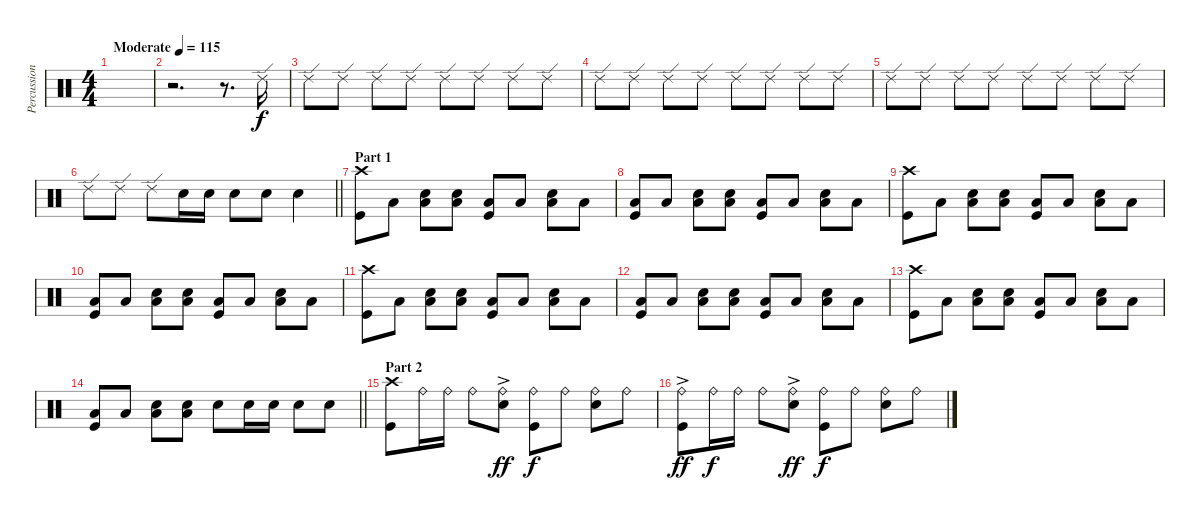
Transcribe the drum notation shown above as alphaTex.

\track ("Percussion" "Percussion") {instrument percussion}
\staff {score}
\articulation defaults
\ts (4 4)
\tempo (115 "Moderate")
\clef neutral
\ks c
|
r.2{d} r.8{d} "Ride (edge) 2".16 |
"Ride (edge) 2".8 "Ride (edge) 2".8 "Ride (edge) 2".8 "Ride (edge) 2".8 "Ride (edge) 2".8 "Ride (edge) 2".8 "Ride (edge) 2".8 "Ride (edge) 2".8 |
"Ride (edge) 2".8 "Ride (edge) 2".8 "Ride (edge) 2".8 "Ride (edge) 2".8 "Ride (edge) 2".8 "Ride (edge) 2".8 "Ride (edge) 2".8 "Ride (edge) 2".8 |
"Ride (edge) 2".8 "Ride (edge) 2".8 "Ride (edge) 2".8 "Ride (edge) 2".8 "Ride (edge) 2".8 "Ride (edge) 2".8 "Ride (edge) 2".8 "Ride (edge) 2".8 |
\barLineRight lightlight "Ride (edge) 2".8{dy f} "Ride (edge) 2".8 "Ride (edge) 2".8 "Snare (hit) 2".16 "Snare (hit) 2".16 "Snare (hit) 2".8 "Snare (hit) 2".8 "Snare (hit) 2".4
|
\section ("" "Part 1")
("Crash high (hit)" "Kick (hit)").8 "Low Floor Tom (hit)".8 ("Snare (hit) 2" "Low Floor Tom (hit)").8 ("Snare (hit) 2" "Low Floor Tom (hit)").8 ("Low Floor Tom (hit)" "Kick (hit)").8 "Low Floor Tom (hit)".8 ("Snare (hit) 2" "Low Floor Tom (hit)").8 "Low Floor Tom (hit)".8 |
("Low Floor Tom (hit)" "Kick (hit)").8 "Low Floor Tom (hit)".8 ("Snare (hit) 2" "Low Floor Tom (hit)").8 ("Snare (hit) 2" "Low Floor Tom (hit)").8 ("Low Floor Tom (hit)" "Kick (hit)").8 "Low Floor Tom (hit)".8 ("Snare (hit) 2" "Low Floor Tom (hit)").8 "Low Floor Tom (hit)".8 |
("Crash high (hit)" "Kick (hit)").8 "Low Floor Tom (hit)".8 ("Snare (hit) 2" "Low Floor Tom (hit)").8 ("Snare (hit) 2" "Low Floor Tom (hit)").8 ("Low Floor Tom (hit)" "Kick (hit)").8 "Low Floor Tom (hit)".8 ("Snare (hit) 2" "Low Floor Tom (hit)").8 "Low Floor Tom (hit)".8 |
("Low Floor Tom (hit)" "Kick (hit)").8 "Low Floor Tom (hit)".8 ("Snare (hit) 2" "Low Floor Tom (hit)").8 ("Snare (hit) 2" "Low Floor Tom (hit)").8 ("Low Floor Tom (hit)" "Kick (hit)").8 "Low Floor Tom (hit)".8 ("Snare (hit) 2" "Low Floor Tom (hit)").8 "Low Floor Tom (hit)".8 |
("Crash high (hit)" "Kick (hit)").8 "Low Floor Tom (hit)".8 ("Snare (hit) 2" "Low Floor Tom (hit)").8 ("Snare (hit) 2" "Low Floor Tom (hit)").8 ("Low Floor Tom (hit)" "Kick (hit)").8 "Low Floor Tom (hit)".8 ("Snare (hit) 2" "Low Floor Tom (hit)").8 "Low Floor Tom (hit)".8 |
("Low Floor Tom (hit)" "Kick (hit)").8 "Low Floor Tom (hit)".8 ("Snare (hit) 2" "Low Floor Tom (hit)").8 ("Snare (hit) 2" "Low Floor Tom (hit)").8 ("Low Floor Tom (hit)" "Kick (hit)").8 "Low Floor Tom (hit)".8 ("Snare (hit) 2" "Low Floor Tom (hit)").8 "Low Floor Tom (hit)".8 |
("Crash high (hit)" "Kick (hit)").8 "Low Floor Tom (hit)".8 ("Snare (hit) 2" "Low Floor Tom (hit)").8 ("Snare (hit) 2" "Low Floor Tom (hit)").8 ("Low Floor Tom (hit)" "Kick (hit)").8 "Low Floor Tom (hit)".8 ("Snare (hit) 2" "Low Floor Tom (hit)").8 "Low Floor Tom (hit)".8 |
\barLineRight lightlight
("Low Floor Tom (hit)" "Kick (hit)").8 "Low Floor Tom (hit)".8 ("Snare (hit) 2" "Low Floor Tom (hit)").8 ("Snare (hit) 2" "Low Floor Tom (hit)").8 "Snare (hit) 2".8 "Snare (hit) 2".16 "Snare (hit) 2".16 "Snare (hit) 2".8 "Snare (hit) 2".8 |
\section ("" "Part 2")
("Crash high (hit)" "Kick (hit)").8 "Ride (bell)".16 "Ride (bell)".16 "Ride (bell)".8 ("Ride (bell)"{ac} "Snare (hit) 2").8{dy ff} ("Ride (bell)" "Kick (hit)").8{dy f} "Ride (bell)".8 ("Ride (bell)" "Snare (hit) 2").8 "Ride (bell)".8 |
("Ride (bell)"{ac} "Kick (hit)").8{dy ff} "Ride (bell)".16{dy f} "Ride (bell)".16 "Ride (bell)".8 ("Ride (bell)"{ac} "Snare (hit) 2").8{dy ff} ("Ride (bell)" "Kick (hit)").8{dy f} "Ride (bell)".8 ("Ride (bell)" "Snare (hit) 2").8 "Ride (bell)".8
